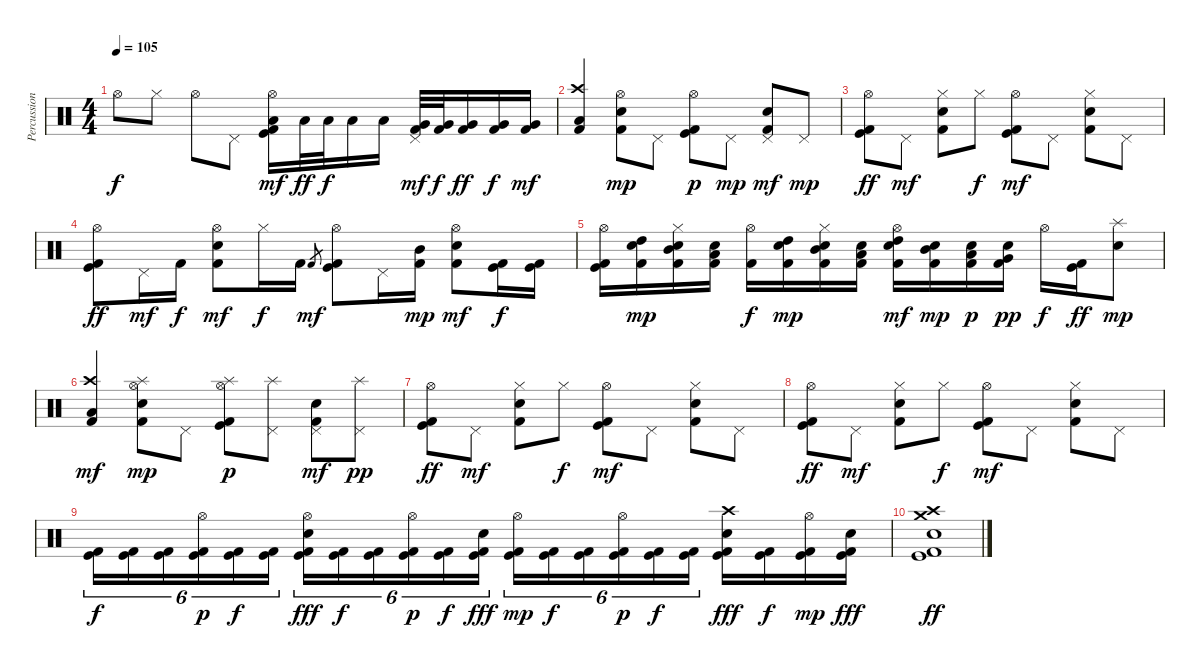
\track ("Percussion" "Percussion") {instrument percussion}
\staff {score}
\articulation defaults
\ts (4 4)
\tempo 105
\clef neutral
\ks c "Hi-Hat (open)".8{dy f} "Hi-Hat (closed)".8 "Hi-Hat (open)".8 "Pedal Hi-Hat (hit)".8
("Low Tom (hit)" "Hi-Hat (open)" "Kick (hit)" "Kick (hit) 2").16{dy mf} "Low Tom (hit)".32{dy ff} "Low Tom (hit)".32{dy f} "Low Tom (hit)".16 "Low Tom (hit)".16 ("Very Low Tom (hit)" "Pedal Hi-Hat (hit)" "Kick (hit) 2").32{dy mf} ("Very Low Tom (hit)" "Kick (hit) 2").32{dy f} ("Very Low Tom (hit)" "Kick (hit) 2").16{dy ff} ("Very Low Tom (hit)" "Kick (hit) 2").16{dy f} ("Very Low Tom (hit)" "Kick (hit) 2").16{dy mf} |
("Crash high (hit)" "Low Floor Tom (hit)" "Kick (hit) 2").4 ("Electric Snare (hit)" "Hi-Hat (open)" "Kick (hit) 2").8{dy mp} "Pedal Hi-Hat (hit)".8 ("Hi-Hat (open)" "Kick (hit)" "Kick (hit) 2").8{dy p} "Pedal Hi-Hat (hit)".8{dy mp} ("Electric Snare (hit)" "Pedal Hi-Hat (hit)" "Kick (hit) 2").8{dy mf} "Pedal Hi-Hat (hit)".8{dy mp} |
("Hi-Hat (open)" "Kick (hit)" "Kick (hit) 2").8{dy ff} "Pedal Hi-Hat (hit)".8{dy mf} ("Electric Snare (hit)" "Hi-Hat (closed)" "Kick (hit) 2").8 "Hi-Hat (closed)".8{dy f} ("Hi-Hat (open)" "Kick (hit)" "Kick (hit) 2").8{dy mf} "Pedal Hi-Hat (hit)".8 ("Electric Snare (hit)" "Hi-Hat (closed)" "Kick (hit) 2").8 "Pedal Hi-Hat (hit)".8 |
("Hi-Hat (open)" "Kick (hit)" "Kick (hit) 2").8{dy ff} "Pedal Hi-Hat (hit)".16{dy mf} "Kick (hit) 2".16{dy f} ("Electric Snare (hit)" "Hi-Hat (open)" "Kick (hit) 2").8{dy mf} "Hi-Hat (closed)".16{dy f} "Kick (hit) 2".16 "Kick (hit) 2".8{gr dy mf} ("Hi-Hat (open)" "Kick (hit)" "Kick (hit) 2").8 "Pedal Hi-Hat (hit)".16 ("Mid Tom (hit)" "Kick (hit) 2").16{dy mp} ("Electric Snare (hit)" "Hi-Hat (open)" "Kick (hit) 2").8{dy mf} ("Kick (hit)" "Kick (hit) 2").16{dy f} ("Kick (hit)" "Kick (hit) 2").16 |
("Hi-Hat (open)" "Kick (hit)" "Kick (hit) 2").16 ("Electric Snare (hit)" "High Tom (hit)" "Kick (hit) 2").16{dy mp} ("Hi-Hat (closed)" "Electric Snare (hit)" "Mid Tom (hit)" "Kick (hit) 2").16 ("Electric Snare (hit)" "Low Tom (hit)" "Kick (hit) 2").16 ("Hi-Hat (open)" "Kick (hit) 2").16{dy f} ("Electric Snare (hit)" "High Tom (hit)" "Kick (hit) 2").16{dy mp} ("Hi-Hat (closed)" "Electric Snare (hit)" "Mid Tom (hit)" "Kick (hit) 2").16 ("Electric Snare (hit)" "Low Tom (hit)" "Kick (hit) 2").16 ("Hi-Hat (open)" "Electric Snare (hit)" "High Tom (hit)" "Kick (hit) 2").16{dy mf} ("Electric Snare (hit)" "Mid Tom (hit)" "Kick (hit) 2").16{dy mp} ("Electric Snare (hit)" "Low Tom (hit)" "Kick (hit) 2").16{dy p} ("Electric Snare (hit)" "Very Low Tom (hit)" "Kick (hit) 2").16{dy pp} "Hi-Hat (open)".16{dy f} ("Kick (hit)" "Kick (hit) 2").16{dy ff} ("Electric Snare (hit)" "Splash (hit)").8{dy mp} |
("Crash high (hit)" "Low Floor Tom (hit)" "Kick (hit) 2").4{dy mf} ("Electric Snare (hit)" "Hi-Hat (open)" "Splash (hit)" "Kick (hit) 2").8{dy mp} "Pedal Hi-Hat (hit)".8 ("Hi-Hat (open)" "Splash (hit)" "Kick (hit)" "Kick (hit) 2").8{dy p} ("Pedal Hi-Hat (hit)" "Splash (hit)").8 ("Electric Snare (hit)" "Pedal Hi-Hat (hit)" "Kick (hit) 2").8{dy mf} ("Pedal Hi-Hat (hit)" "Splash (hit)").8{dy pp} |
("Hi-Hat (open)" "Kick (hit)" "Kick (hit) 2").8{dy ff} "Pedal Hi-Hat (hit)".8{dy mf} ("Electric Snare (hit)" "Hi-Hat (closed)" "Kick (hit) 2").8 "Hi-Hat (closed)".8{dy f} ("Hi-Hat (open)" "Kick (hit)" "Kick (hit) 2").8{dy mf} "Pedal Hi-Hat (hit)".8 ("Electric Snare (hit)" "Hi-Hat (closed)" "Kick (hit) 2").8 "Pedal Hi-Hat (hit)".8 |
("Hi-Hat (open)" "Kick (hit)" "Kick (hit) 2").8{dy ff} "Pedal Hi-Hat (hit)".8{dy mf} ("Electric Snare (hit)" "Hi-Hat (closed)" "Kick (hit) 2").8 "Hi-Hat (closed)".8{dy f} ("Hi-Hat (open)" "Kick (hit)" "Kick (hit) 2").8{dy mf} "Pedal Hi-Hat (hit)".8 ("Electric Snare (hit)" "Hi-Hat (closed)" "Kick (hit) 2").8 "Pedal Hi-Hat (hit)".8 |
("Kick (hit)" "Kick (hit) 2").16{tu (6 4) dy f} ("Kick (hit)" "Kick (hit) 2").16{tu (6 4)} ("Kick (hit)" "Kick (hit) 2").16{tu (6 4)} ("Hi-Hat (open)" "Kick (hit)" "Kick (hit) 2").16{tu (6 4) dy p} ("Kick (hit)" "Kick (hit) 2").16{tu (6 4) dy f} ("Kick (hit)" "Kick (hit) 2").16{tu (6 4)} ("Hi-Hat (open)" "Electric Snare (hit)" "Kick (hit)" "Kick (hit) 2").16{tu (6 4) dy fff} ("Kick (hit)" "Kick (hit) 2").16{tu (6 4) dy f} ("Kick (hit)" "Kick (hit) 2").16{tu (6 4)} ("Hi-Hat (open)" "Kick (hit)" "Kick (hit) 2").16{tu (6 4) dy p} ("Kick (hit)" "Kick (hit) 2").16{tu (6 4) dy f} ("Electric Snare (hit)" "Kick (hit)" "Kick (hit) 2").16{tu (6 4) dy fff} ("Hi-Hat (open)" "Kick (hit)" "Kick (hit) 2").16{tu (6 4) dy mp} ("Kick (hit)" "Kick (hit) 2").16{tu (6 4) dy f} ("Kick (hit)" "Kick (hit) 2").16{tu (6 4)} ("Hi-Hat (open)" "Kick (hit)" "Kick (hit) 2").16{tu (6 4) dy p} ("Kick (hit)" "Kick (hit) 2").16{tu (6 4) dy f} ("Kick (hit)" "Kick (hit) 2").16{tu (6 4)} ("Crash high (hit)" "Electric Snare (hit)" "Kick (hit)" "Kick (hit) 2").16{dy fff} ("Kick (hit)" "Kick (hit) 2").16{dy f} ("Hi-Hat (open)" "Kick (hit)" "Kick (hit) 2").16{dy mp} ("Electric Snare (hit)" "Kick (hit)" "Kick (hit) 2").16{dy fff} |
("Crash medium (hit)" "Crash high (hit)" "Electric Snare (hit)" "Kick (hit)" "Kick (hit) 2").1{dy ff}
